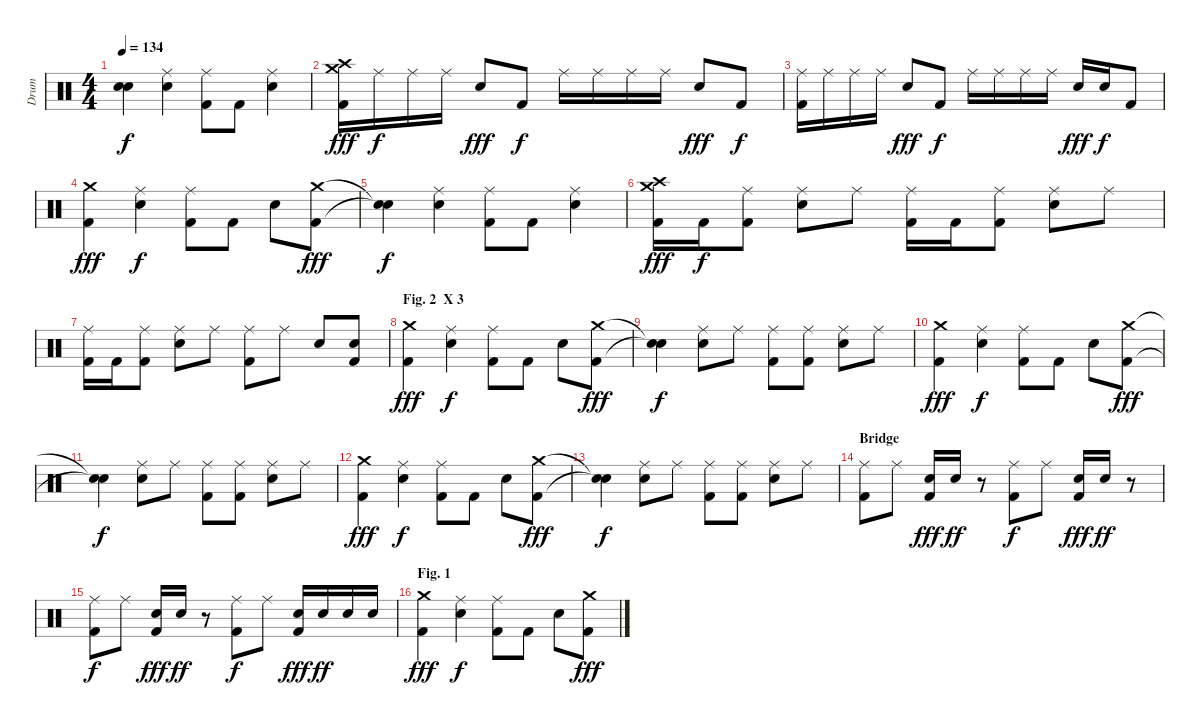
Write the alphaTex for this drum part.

\track ("Drum" "Drum") {instrument percussion}
\staff {score}
\articulation defaults
\ts (4 4)
\tempo 134
\clef neutral
\ks c
("Snare (hit)"{t} "Snare (hit)"{t}).4{dy f} ("Ride (middle)" "Snare (hit) 2").4 ("Ride (middle)" "Kick (hit) 2").8 "Kick (hit) 2".8 ("Ride (middle)" "Snare (hit) 2").4 |
("Crash medium (hit)" "Crash high (hit)" "Kick (hit) 2").16{dy fff} "Ride (middle)".16{dy f} "Ride (middle)".16 "Ride (middle)".16 "Snare (hit) 2".8{dy fff} "Kick (hit) 2".8{dy f} "Ride (middle)".16 "Ride (middle)".16 "Ride (middle)".16 "Ride (middle)".16 "Snare (hit) 2".8{dy fff} "Kick (hit) 2".8{dy f} |
("Ride (middle)" "Kick (hit) 2").16 "Ride (middle)".16 "Ride (middle)".16 "Ride (middle)".16 "Snare (hit) 2".8{dy fff} "Kick (hit) 2".8{dy f} "Ride (middle)".16 "Ride (middle)".16 "Ride (middle)".16 "Ride (middle)".16 "Snare (hit) 2".16{dy fff} "Snare (hit) 2".16{dy f} "Kick (hit) 2".8 |
("Crash medium (hit)" "Kick (hit) 2").4{dy fff} ("Ride (middle)" "Snare (hit) 2").4{dy f} ("Ride (middle)" "Kick (hit) 2").8 "Kick (hit) 2".8 "Snare (hit) 2".8 ("Crash medium (hit)" "Kick (hit) 2").8{dy fff} |
("Snare (hit)"{t} "Snare (hit)"{t}).4{dy f} ("Ride (middle)" "Snare (hit) 2").4 ("Ride (middle)" "Kick (hit) 2").8 "Kick (hit) 2".8 ("Ride (middle)" "Snare (hit) 2").4 |
("Crash medium (hit)" "Crash high (hit)" "Kick (hit) 2").16{dy fff} "Kick (hit) 2".16{dy f} ("Ride (middle)" "Kick (hit) 2").8 ("Ride (middle)" "Snare (hit) 2").8 "Ride (middle)".8 ("Ride (middle)" "Kick (hit) 2").16 "Kick (hit) 2".16 ("Ride (middle)" "Kick (hit) 2").8 ("Ride (middle)" "Snare (hit) 2").8 "Ride (middle)".8 |
("Ride (middle)" "Kick (hit) 2").16 "Kick (hit) 2".16 ("Ride (middle)" "Kick (hit) 2").8 ("Ride (middle)" "Snare (hit) 2").8 "Ride (middle)".8 ("Ride (middle)" "Kick (hit) 2").8 "Ride (middle)".8 "Snare (hit) 2".8 ("Snare (hit) 2" "Kick (hit) 2").8 |
\section ("" "Fig. 2  X 3")
("Crash medium (hit)" "Kick (hit) 2").4{dy fff} ("Ride (middle)" "Snare (hit) 2").4{dy f} ("Ride (middle)" "Kick (hit) 2").8 "Kick (hit) 2".8 "Snare (hit) 2".8 ("Crash medium (hit)" "Kick (hit) 2").8{dy fff} |
("Snare (hit)"{t} "Snare (hit)"{t}).4{dy f} ("Ride (middle)" "Snare (hit) 2").8 "Ride (middle)".8 ("Ride (middle)" "Kick (hit) 2").8 ("Ride (middle)" "Kick (hit) 2").8 ("Ride (middle)" "Snare (hit) 2").8 "Ride (middle)".8 |
("Crash medium (hit)" "Kick (hit) 2").4{dy fff} ("Ride (middle)" "Snare (hit) 2").4{dy f} ("Ride (middle)" "Kick (hit) 2").8 "Kick (hit) 2".8 "Snare (hit) 2".8 ("Crash medium (hit)" "Kick (hit) 2").8{dy fff} |
("Snare (hit)"{t} "Snare (hit)"{t}).4{dy f} ("Ride (middle)" "Snare (hit) 2").8 "Ride (middle)".8 ("Ride (middle)" "Kick (hit) 2").8 ("Ride (middle)" "Kick (hit) 2").8 ("Ride (middle)" "Snare (hit) 2").8 "Ride (middle)".8 |
("Crash medium (hit)" "Kick (hit) 2").4{dy fff} ("Ride (middle)" "Snare (hit) 2").4{dy f} ("Ride (middle)" "Kick (hit) 2").8 "Kick (hit) 2".8 "Snare (hit) 2".8 ("Crash medium (hit)" "Kick (hit) 2").8{dy fff} |
("Snare (hit)"{t} "Snare (hit)"{t}).4{dy f} ("Ride (middle)" "Snare (hit) 2").8 "Ride (middle)".8 ("Ride (middle)" "Kick (hit) 2").8 ("Ride (middle)" "Kick (hit) 2").8 ("Ride (middle)" "Snare (hit) 2").8 "Ride (middle)".8 |
\section ("" "Bridge")
("Ride (middle)" "Kick (hit) 2").8 "Ride (middle)".8 ("Snare (hit) 2" "Kick (hit) 2").16{dy fff} "Snare (hit) 2".16{dy ff} r.8 ("Ride (middle)" "Kick (hit) 2").8{dy f} "Ride (middle)".8 ("Snare (hit) 2" "Kick (hit) 2").16{dy fff} "Snare (hit) 2".16{dy ff} r.8 |
("Ride (middle)" "Kick (hit) 2").8{dy f} "Ride (middle)".8 ("Snare (hit) 2" "Kick (hit) 2").16{dy fff} "Snare (hit) 2".16{dy ff} r.8 ("Ride (middle)" "Kick (hit) 2").8{dy f} "Ride (middle)".8 ("Snare (hit) 2" "Kick (hit) 2").16{dy fff} "Snare (hit) 2".16{dy ff} "Snare (hit) 2".16 "Snare (hit) 2".16 |
\section ("" "Fig. 1")
("Crash medium (hit)" "Kick (hit) 2").4{dy fff} ("Ride (middle)" "Snare (hit) 2").4{dy f} ("Ride (middle)" "Kick (hit) 2").8 "Kick (hit) 2".8 "Snare (hit) 2".8 ("Crash medium (hit)" "Kick (hit) 2").8{dy fff}
